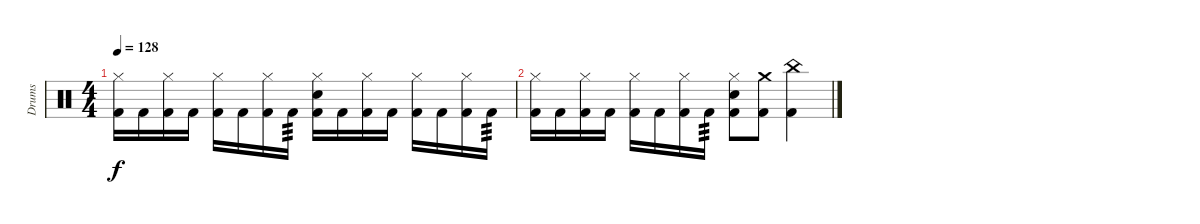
\track ("Drums" "Drums") {instrument percussion}
\staff {score}
\articulation defaults
\ts (4 4)
\tempo 128
\clef neutral
\ks c
("Hi-Hat (closed)" "Kick (hit) 2").16{dy f} "Kick (hit) 2".16 ("Hi-Hat (closed)" "Kick (hit) 2").16 "Kick (hit) 2".16 ("Hi-Hat (closed)" "Kick (hit) 2").16 "Kick (hit) 2".16 ("Hi-Hat (closed)" "Kick (hit) 2").16 "Kick (hit) 2".16{tp 3} ("Hi-Hat (closed)" "Snare (hit) 2" "Kick (hit) 2").16 "Kick (hit) 2".16 ("Hi-Hat (closed)" "Kick (hit) 2").16 "Kick (hit) 2".16 ("Hi-Hat (closed)" "Kick (hit) 2").16 "Kick (hit) 2".16 ("Hi-Hat (closed)" "Kick (hit) 2").16 "Kick (hit) 2".16{tp 3} |
("Hi-Hat (closed)" "Kick (hit) 2").16 "Kick (hit) 2".16 ("Hi-Hat (closed)" "Kick (hit) 2").16 "Kick (hit) 2".16 ("Hi-Hat (closed)" "Kick (hit) 2").16 "Kick (hit) 2".16 ("Hi-Hat (closed)" "Kick (hit) 2").16 "Kick (hit) 2".16{tp 3} ("Hi-Hat (closed)" "Snare (hit) 2" "Kick (hit) 2").8 ("Crash medium (hit)" "Kick (hit) 2").8 ("China (hit)" "Kick (hit) 2").4
